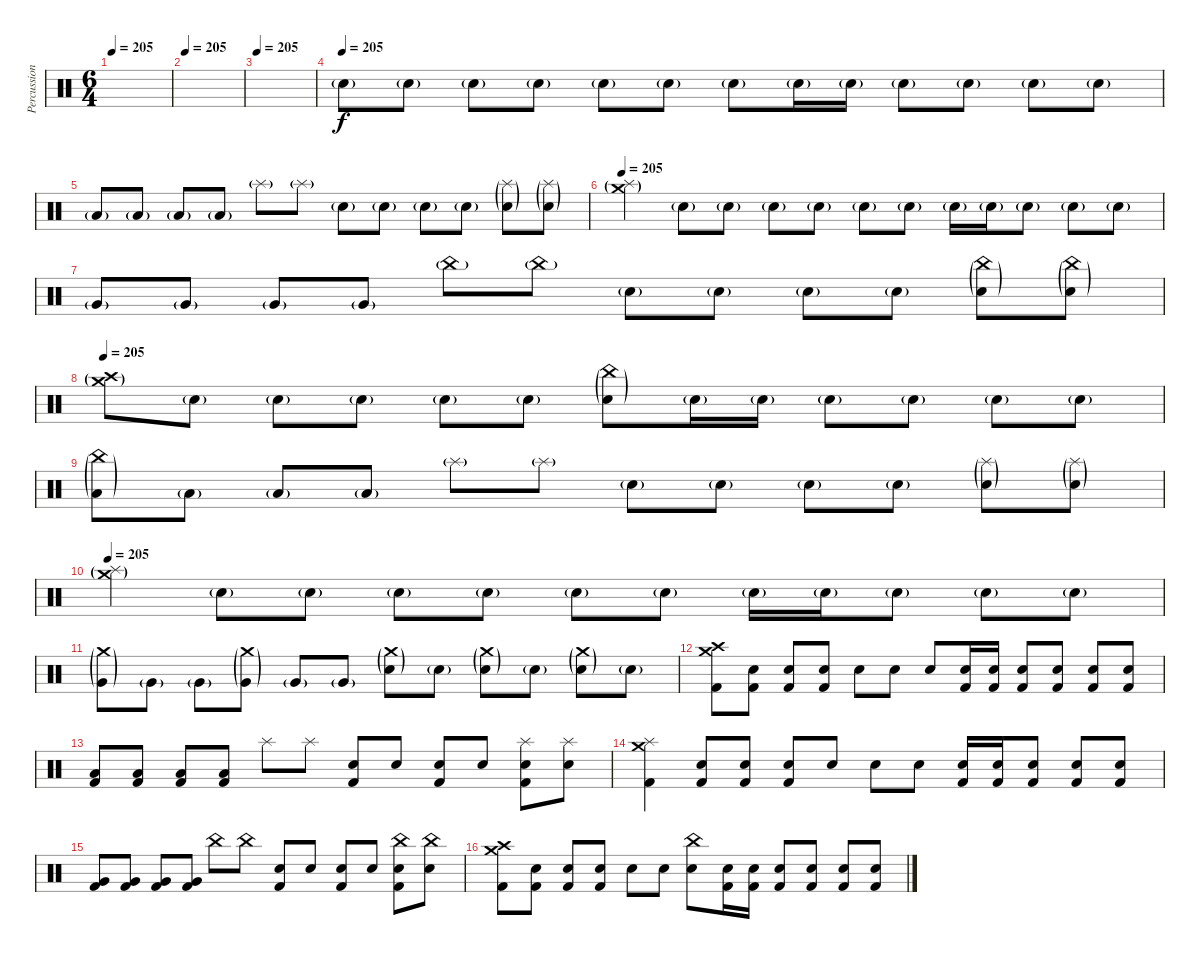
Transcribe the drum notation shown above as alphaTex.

\track ("Percussion" "Percussion") {instrument percussion}
\staff {score}
\articulation defaults
\ts (6 4)
\tempo 205
\clef neutral
\ks c
|
\tempo 205
|
\tempo 205
|
\tempo (205)
"Electric Snare (hit)"{g}.8 "Electric Snare (hit)"{g}.8 "Electric Snare (hit)"{g}.8 "Electric Snare (hit)"{g}.8 "Electric Snare (hit)"{g}.8 "Electric Snare (hit)"{g}.8 "Electric Snare (hit)"{g}.8 "Electric Snare (hit)"{g}.16 "Electric Snare (hit)"{g}.16 "Electric Snare (hit)"{g}.8 "Electric Snare (hit)"{g}.8 "Electric Snare (hit)"{g}.8 "Electric Snare (hit)"{g}.8 |
"Low Floor Tom (hit)"{g}.8 "Low Floor Tom (hit)"{g}.8 "Low Floor Tom (hit)"{g}.8 "Low Floor Tom (hit)"{g}.8 "Splash (hit)"{g}.8 "Splash (hit)"{g}.8 "Electric Snare (hit)"{g}.8 "Electric Snare (hit)"{g}.8 "Electric Snare (hit)"{g}.8 "Electric Snare (hit)"{g}.8 ("Splash (hit)"{g} "Electric Snare (hit)"{g}).8 ("Splash (hit)"{g} "Electric Snare (hit)"{g}).8 |
\tempo 205
("Crash medium (hit)"{g} "Splash (hit)"{g}).4 "Electric Snare (hit)"{g}.8 "Electric Snare (hit)"{g}.8 "Electric Snare (hit)"{g}.8 "Electric Snare (hit)"{g}.8 "Electric Snare (hit)"{g}.8 "Electric Snare (hit)"{g}.8 "Electric Snare (hit)"{g}.16 "Electric Snare (hit)"{g}.16 "Electric Snare (hit)"{g}.8 "Electric Snare (hit)"{g}.8 "Electric Snare (hit)"{g}.8 |
"Very Low Tom (hit)"{g}.8 "Very Low Tom (hit)"{g}.8 "Very Low Tom (hit)"{g}.8 "Very Low Tom (hit)"{g}.8 "China (hit)"{g}.8 "China (hit)"{g}.8 "Electric Snare (hit)"{g}.8 "Electric Snare (hit)"{g}.8 "Electric Snare (hit)"{g}.8 "Electric Snare (hit)"{g}.8 ("China (hit)"{g} "Electric Snare (hit)"{g}).8 ("China (hit)"{g} "Electric Snare (hit)"{g}).8 |
\tempo 205
("Crash medium (hit)"{g} "Crash high (hit)"{g}).8 "Electric Snare (hit)"{g}.8 "Electric Snare (hit)"{g}.8 "Electric Snare (hit)"{g}.8 "Electric Snare (hit)"{g}.8 "Electric Snare (hit)"{g}.8 ("China (hit)"{g} "Electric Snare (hit)"{g}).8 "Electric Snare (hit)"{g}.16 "Electric Snare (hit)"{g}.16 "Electric Snare (hit)"{g}.8 "Electric Snare (hit)"{g}.8 "Electric Snare (hit)"{g}.8 "Electric Snare (hit)"{g}.8 |
("China (hit)"{g} "Low Floor Tom (hit)"{g}).8 "Low Floor Tom (hit)"{g}.8 "Low Floor Tom (hit)"{g}.8 "Low Floor Tom (hit)"{g}.8 "Splash (hit)"{g}.8 "Splash (hit)"{g}.8 "Electric Snare (hit)"{g}.8 "Electric Snare (hit)"{g}.8 "Electric Snare (hit)"{g}.8 "Electric Snare (hit)"{g}.8 ("Splash (hit)"{g} "Electric Snare (hit)"{g}).8 ("Splash (hit)"{g} "Electric Snare (hit)"{g}).8 |
\tempo 205
("Crash medium (hit)"{g} "Splash (hit)"{g}).4 "Electric Snare (hit)"{g}.8 "Electric Snare (hit)"{g}.8 "Electric Snare (hit)"{g}.8 "Electric Snare (hit)"{g}.8 "Electric Snare (hit)"{g}.8 "Electric Snare (hit)"{g}.8 "Electric Snare (hit)"{g}.16 "Electric Snare (hit)"{g}.16 "Electric Snare (hit)"{g}.8 "Electric Snare (hit)"{g}.8 "Electric Snare (hit)"{g}.8 |
("Crash medium (hit)"{g} "Very Low Tom (hit)"{g}).8 "Very Low Tom (hit)"{g}.8 "Very Low Tom (hit)"{g}.8 ("Crash medium (hit)"{g} "Very Low Tom (hit)"{g}).8 "Very Low Tom (hit)"{g}.8 "Very Low Tom (hit)"{g}.8 ("Crash medium (hit)"{g} "Electric Snare (hit)"{g}).8 "Electric Snare (hit)"{g}.8 ("Crash medium (hit)"{g} "Electric Snare (hit)"{g}).8 "Electric Snare (hit)"{g}.8 ("Crash medium (hit)"{g} "Electric Snare (hit)"{g}).8 "Electric Snare (hit)"{g}.8 |
("Crash medium (hit)" "Crash high (hit)" "Kick (hit) 2").8{dy f volume 11} ("Electric Snare (hit)" "Kick (hit) 2").8 ("Electric Snare (hit)" "Kick (hit) 2").8 ("Electric Snare (hit)" "Kick (hit) 2").8 "Electric Snare (hit)".8 "Electric Snare (hit)".8 "Electric Snare (hit)".8 ("Electric Snare (hit)" "Kick (hit) 2").16 ("Electric Snare (hit)" "Kick (hit) 2").16 ("Electric Snare (hit)" "Kick (hit) 2").8 ("Electric Snare (hit)" "Kick (hit) 2").8 ("Electric Snare (hit)" "Kick (hit) 2").8 ("Electric Snare (hit)" "Kick (hit) 2").8 |
("Low Floor Tom (hit)" "Kick (hit) 2").8 ("Low Floor Tom (hit)" "Kick (hit) 2").8 ("Low Floor Tom (hit)" "Kick (hit) 2").8 ("Low Floor Tom (hit)" "Kick (hit) 2").8 "Splash (hit)".8 "Splash (hit)".8 ("Electric Snare (hit)" "Kick (hit) 2").8 "Electric Snare (hit)".8 ("Electric Snare (hit)" "Kick (hit) 2").8 "Electric Snare (hit)".8 ("Splash (hit)" "Electric Snare (hit)" "Kick (hit) 2").8 ("Splash (hit)" "Electric Snare (hit)").8 |
("Crash medium (hit)" "Splash (hit)" "Kick (hit) 2").4 ("Electric Snare (hit)" "Kick (hit) 2").8 ("Electric Snare (hit)" "Kick (hit) 2").8 ("Electric Snare (hit)" "Kick (hit) 2").8 "Electric Snare (hit)".8 "Electric Snare (hit)".8 "Electric Snare (hit)".8 ("Electric Snare (hit)" "Kick (hit) 2").16 ("Electric Snare (hit)" "Kick (hit) 2").16 ("Electric Snare (hit)" "Kick (hit) 2").8 ("Electric Snare (hit)" "Kick (hit) 2").8 ("Electric Snare (hit)" "Kick (hit) 2").8 |
("Very Low Tom (hit)" "Kick (hit) 2").8 ("Very Low Tom (hit)" "Kick (hit) 2").8 ("Very Low Tom (hit)" "Kick (hit) 2").8 ("Very Low Tom (hit)" "Kick (hit) 2").8 "China (hit)".8 "China (hit)".8 ("Electric Snare (hit)" "Kick (hit) 2").8 "Electric Snare (hit)".8 ("Electric Snare (hit)" "Kick (hit) 2").8 "Electric Snare (hit)".8 ("China (hit)" "Electric Snare (hit)" "Kick (hit) 2").8 ("China (hit)" "Electric Snare (hit)").8 |
("Crash medium (hit)" "Crash high (hit)" "Kick (hit) 2").8 ("Electric Snare (hit)" "Kick (hit) 2").8 ("Electric Snare (hit)" "Kick (hit) 2").8 ("Electric Snare (hit)" "Kick (hit) 2").8 "Electric Snare (hit)".8 "Electric Snare (hit)".8 ("China (hit)" "Electric Snare (hit)").8 ("Electric Snare (hit)" "Kick (hit) 2").16 ("Electric Snare (hit)" "Kick (hit) 2").16 ("Electric Snare (hit)" "Kick (hit) 2").8 ("Electric Snare (hit)" "Kick (hit) 2").8 ("Electric Snare (hit)" "Kick (hit) 2").8 ("Electric Snare (hit)" "Kick (hit) 2").8
